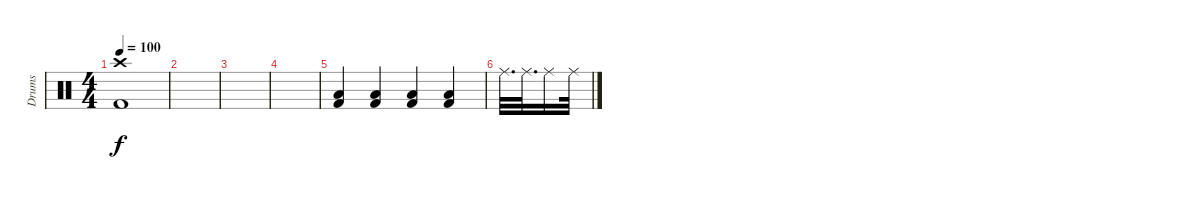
\track ("Drums" "Drums") {instrument percussion}
\staff {score}
\articulation defaults
\ts (4 4)
\tempo 100
\clef neutral
\ks c
("Kick (hit) 2" "Crash high (hit)").1{dy f} |
|
|
|
("Kick (hit) 2" "Low Floor Tom (hit)").4{volume 10} ("Kick (hit) 2" "Low Floor Tom (hit)").4 ("Kick (hit) 2" "Low Floor Tom (hit)").4 ("Kick (hit) 2" "Low Floor Tom (hit)").4 |
"Ride (middle)".32{d} "Ride (middle)".32{d} "Ride (middle)".16 "Ride (middle)".32
